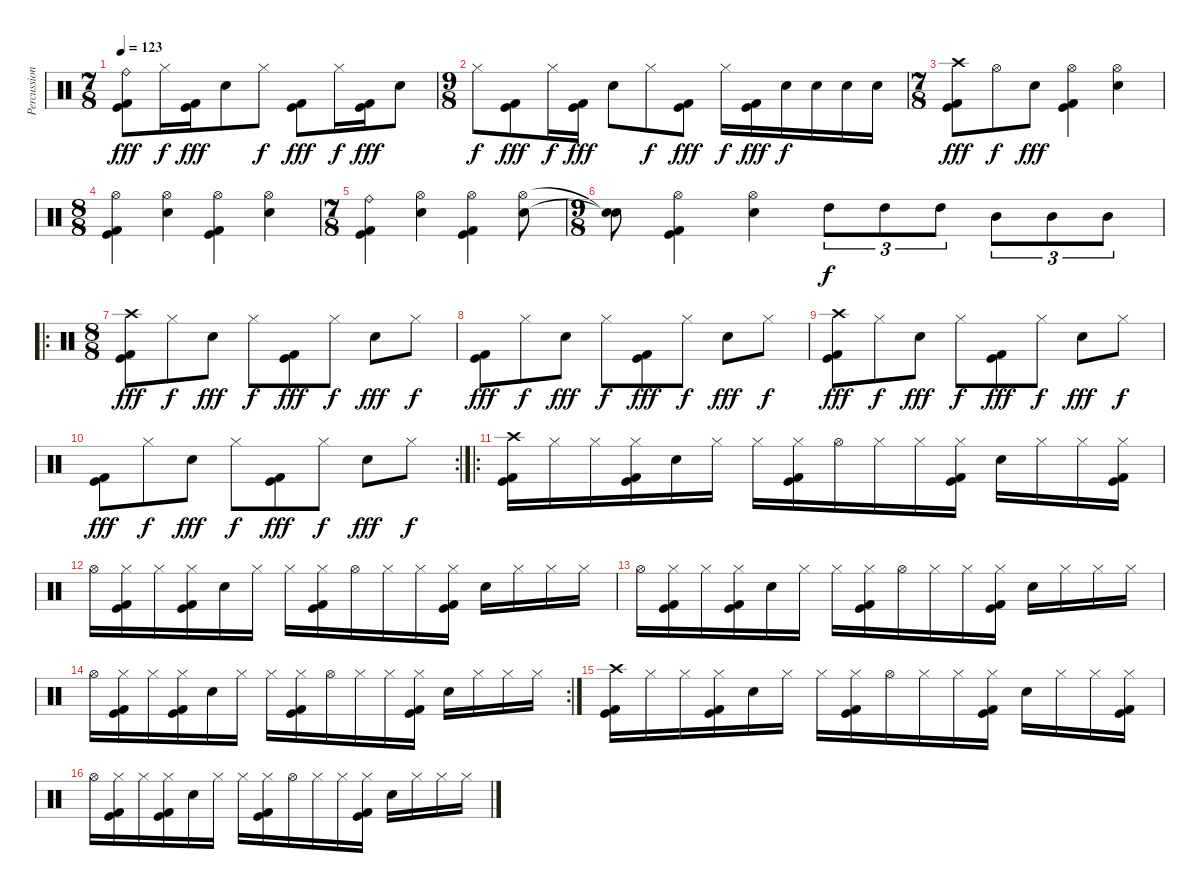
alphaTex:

\track ("Percussion" "Percussion") {instrument percussion}
\staff {score}
\articulation defaults
\ts (7 8)
\tempo 123
\clef neutral
\ks c
("Ride (bell)" "Kick (hit) 2" "Kick (hit)").8{dy fff} "Hi-Hat (closed)".16{dy f} ("Kick (hit) 2" "Kick (hit)").16{dy fff} "Electric Snare (hit)".8 "Hi-Hat (closed)".8{dy f} ("Kick (hit) 2" "Kick (hit)").8{dy fff} "Hi-Hat (closed)".16{dy f} ("Kick (hit)" "Kick (hit) 2").16{dy fff} "Electric Snare (hit)".8 |
\ts (9 8)
"Hi-Hat (closed)".8{dy f} ("Kick (hit) 2" "Kick (hit)").8{dy fff} "Hi-Hat (closed)".16{dy f} ("Kick (hit) 2" "Kick (hit)").16{dy fff} "Electric Snare (hit)".8 "Hi-Hat (closed)".8{dy f} ("Kick (hit) 2" "Kick (hit)").8{dy fff} "Hi-Hat (closed)".16{dy f} ("Kick (hit)" "Kick (hit) 2").16{dy fff} "Electric Snare (hit)".16{dy f} "Electric Snare (hit)".16 "Electric Snare (hit)".16 "Electric Snare (hit)".16 |
\ts (7 8)
("Crash high (hit)" "Kick (hit) 2" "Kick (hit)").8{dy fff} "Hi-Hat (open)".8{dy f} "Electric Snare (hit)".8{dy fff} ("Hi-Hat (open)" "Kick (hit) 2" "Kick (hit)").4 ("Hi-Hat (open)" "Electric Snare (hit)").4 |
\ts (8 8)
("Hi-Hat (open)" "Kick (hit) 2" "Kick (hit)").4 ("Hi-Hat (open)" "Electric Snare (hit)").4 ("Hi-Hat (open)" "Kick (hit) 2" "Kick (hit)").4 ("Hi-Hat (open)" "Electric Snare (hit)").4 |
\ts (7 8)
("Ride (bell)" "Kick (hit) 2" "Kick (hit)").4 ("Hi-Hat (open)" "Electric Snare (hit)").4 ("Hi-Hat (open)" "Kick (hit) 2" "Kick (hit)").4 ("Hi-Hat (open)" "Electric Snare (hit)").8 |
\ts (9 8)
("Snare (hit)"{t} "Snare (hit)"{t}).8 ("Hi-Hat (open)" "Kick (hit) 2" "Kick (hit)").4 ("Hi-Hat (open)" "Electric Snare (hit)").4 "High Tom (hit)".8{tu (3 2) dy f} "High Tom (hit)".8{tu (3 2)} "High Tom (hit)".8{tu (3 2)} "Mid Tom (hit)".8{tu (3 2)} "Mid Tom (hit)".8{tu (3 2)} "Mid Tom (hit)".8{tu (3 2)} |
\ro
\ts (8 8)
("Crash high (hit)" "Kick (hit) 2" "Kick (hit)").8{dy fff} "Hi-Hat (closed)".8{dy f} "Electric Snare (hit)".8{dy fff} "Hi-Hat (closed)".8{dy f} ("Kick (hit) 2" "Kick (hit)").8{dy fff} "Hi-Hat (closed)".8{dy f} "Electric Snare (hit)".8{dy fff} "Hi-Hat (closed)".8{dy f} |
("Kick (hit) 2" "Kick (hit)").8{dy fff} "Hi-Hat (closed)".8{dy f} "Electric Snare (hit)".8{dy fff} "Hi-Hat (closed)".8{dy f} ("Kick (hit) 2" "Kick (hit)").8{dy fff} "Hi-Hat (closed)".8{dy f} "Electric Snare (hit)".8{dy fff} "Hi-Hat (closed)".8{dy f} |
("Crash high (hit)" "Kick (hit) 2" "Kick (hit)").8{dy fff} "Hi-Hat (closed)".8{dy f} "Electric Snare (hit)".8{dy fff} "Hi-Hat (closed)".8{dy f} ("Kick (hit) 2" "Kick (hit)").8{dy fff} "Hi-Hat (closed)".8{dy f} "Electric Snare (hit)".8{dy fff} "Hi-Hat (closed)".8{dy f} |
\rc 2
("Kick (hit) 2" "Kick (hit)").8{dy fff} "Hi-Hat (closed)".8{dy f} "Electric Snare (hit)".8{dy fff} "Hi-Hat (closed)".8{dy f} ("Kick (hit) 2" "Kick (hit)").8{dy fff} "Hi-Hat (closed)".8{dy f} "Electric Snare (hit)".8{dy fff} "Hi-Hat (closed)".8{dy f} |
\ro
("Crash high (hit)" "Kick (hit)" "Kick (hit) 2").16 "Hi-Hat (closed)".16 "Hi-Hat (closed)".16 ("Hi-Hat (closed)" "Kick (hit)" "Kick (hit) 2").16 "Electric Snare (hit)".16 "Hi-Hat (closed)".16 "Hi-Hat (closed)".16 ("Hi-Hat (closed)" "Kick (hit) 2" "Kick (hit)").16 "Hi-Hat (open)".16 "Hi-Hat (closed)".16 "Hi-Hat (closed)".16 ("Hi-Hat (closed)" "Kick (hit)" "Kick (hit) 2").16 "Electric Snare (hit)".16 "Hi-Hat (closed)".16 "Hi-Hat (closed)".16 ("Hi-Hat (closed)" "Kick (hit)" "Kick (hit) 2").16 |
"Hi-Hat (open)".16 ("Hi-Hat (closed)" "Kick (hit)" "Kick (hit) 2").16 "Hi-Hat (closed)".16 ("Hi-Hat (closed)" "Kick (hit)" "Kick (hit) 2").16 "Electric Snare (hit)".16 "Hi-Hat (closed)".16 "Hi-Hat (closed)".16 ("Hi-Hat (closed)" "Kick (hit) 2" "Kick (hit)").16 "Hi-Hat (open)".16 "Hi-Hat (closed)".16 "Hi-Hat (closed)".16 ("Hi-Hat (closed)" "Kick (hit)" "Kick (hit) 2").16 "Electric Snare (hit)".16 "Hi-Hat (closed)".16 "Hi-Hat (closed)".16 "Hi-Hat (closed)".16 |
"Hi-Hat (open)".16 ("Hi-Hat (closed)" "Kick (hit)" "Kick (hit) 2").16 "Hi-Hat (closed)".16 ("Hi-Hat (closed)" "Kick (hit)" "Kick (hit) 2").16 "Electric Snare (hit)".16 "Hi-Hat (closed)".16 "Hi-Hat (closed)".16 ("Hi-Hat (closed)" "Kick (hit) 2" "Kick (hit)").16 "Hi-Hat (open)".16 "Hi-Hat (closed)".16 "Hi-Hat (closed)".16 ("Hi-Hat (closed)" "Kick (hit)" "Kick (hit) 2").16 "Electric Snare (hit)".16 "Hi-Hat (closed)".16 "Hi-Hat (closed)".16 "Hi-Hat (closed)".16 |
\rc 2 "Hi-Hat (open)".16
("Hi-Hat (closed)" "Kick (hit)" "Kick (hit) 2").16 "Hi-Hat (closed)".16 ("Hi-Hat (closed)" "Kick (hit)" "Kick (hit) 2").16 "Electric Snare (hit)".16 "Hi-Hat (closed)".16 "Hi-Hat (closed)".16 ("Hi-Hat (closed)" "Kick (hit) 2" "Kick (hit)").16 "Hi-Hat (open)".16 "Hi-Hat (closed)".16 "Hi-Hat (closed)".16 ("Hi-Hat (closed)" "Kick (hit)" "Kick (hit) 2").16 "Electric Snare (hit)".16 "Hi-Hat (closed)".16 "Hi-Hat (closed)".16 "Hi-Hat (closed)".16 |
("Crash high (hit)" "Kick (hit)" "Kick (hit) 2").16 "Hi-Hat (closed)".16 "Hi-Hat (closed)".16 ("Hi-Hat (closed)" "Kick (hit)" "Kick (hit) 2").16 "Electric Snare (hit)".16 "Hi-Hat (closed)".16 "Hi-Hat (closed)".16 ("Hi-Hat (closed)" "Kick (hit) 2" "Kick (hit)").16 "Hi-Hat (open)".16 "Hi-Hat (closed)".16 "Hi-Hat (closed)".16 ("Hi-Hat (closed)" "Kick (hit)" "Kick (hit) 2").16 "Electric Snare (hit)".16 "Hi-Hat (closed)".16 "Hi-Hat (closed)".16 ("Hi-Hat (closed)" "Kick (hit)" "Kick (hit) 2").16 |
"Hi-Hat (open)".16 ("Hi-Hat (closed)" "Kick (hit)" "Kick (hit) 2").16 "Hi-Hat (closed)".16 ("Hi-Hat (closed)" "Kick (hit)" "Kick (hit) 2").16 "Electric Snare (hit)".16 "Hi-Hat (closed)".16 "Hi-Hat (closed)".16 ("Hi-Hat (closed)" "Kick (hit) 2" "Kick (hit)").16 "Hi-Hat (open)".16 "Hi-Hat (closed)".16 "Hi-Hat (closed)".16 ("Hi-Hat (closed)" "Kick (hit)" "Kick (hit) 2").16 "Electric Snare (hit)".16 "Hi-Hat (closed)".16 "Hi-Hat (closed)".16 "Hi-Hat (closed)".16
